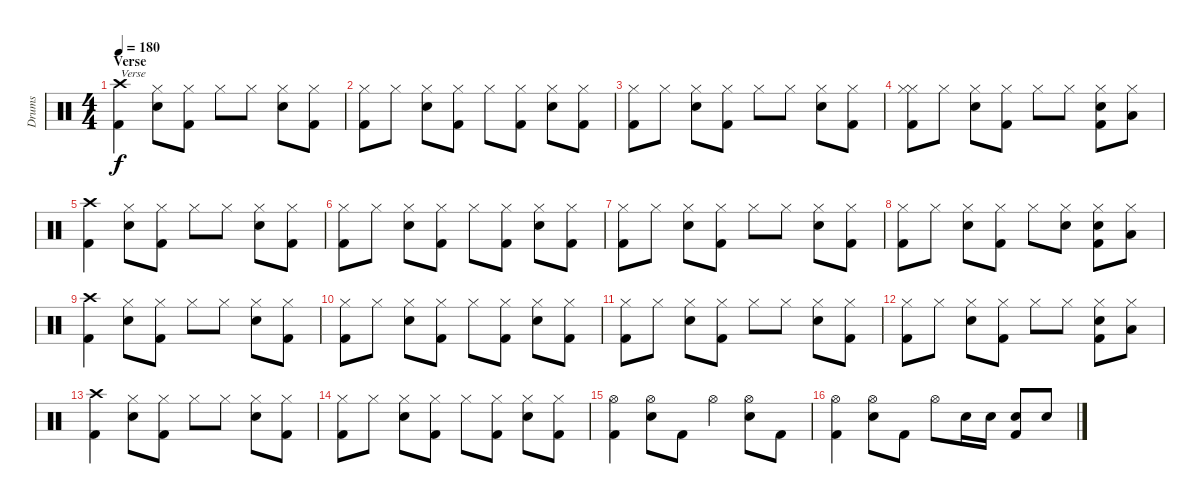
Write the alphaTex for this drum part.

\track ("Drums" "Drums") {instrument percussion}
\staff {score}
\articulation defaults
\ts (4 4)
\section ("" "Verse")
\tempo 180
\clef neutral
\ks c
("Crash high (hit)" "Kick (hit) 2").4{txt "Verse" dy f} ("Hi-Hat (closed)" "Electric Snare (hit)").8 ("Hi-Hat (closed)" "Kick (hit) 2").8 "Hi-Hat (closed)".8 "Hi-Hat (closed)".8 ("Hi-Hat (closed)" "Electric Snare (hit)").8 ("Hi-Hat (closed)" "Kick (hit) 2").8 |
("Hi-Hat (closed)" "Kick (hit) 2").8 "Hi-Hat (closed)".8 ("Hi-Hat (closed)" "Electric Snare (hit)").8 ("Hi-Hat (closed)" "Kick (hit) 2").8 "Hi-Hat (closed)".8 ("Hi-Hat (closed)" "Kick (hit) 2").8 ("Hi-Hat (closed)" "Electric Snare (hit)").8 ("Hi-Hat (closed)" "Kick (hit) 2").8 |
("Hi-Hat (closed)" "Kick (hit) 2").8 "Hi-Hat (closed)".8 ("Hi-Hat (closed)" "Electric Snare (hit)").8 ("Hi-Hat (closed)" "Kick (hit) 2").8 "Hi-Hat (closed)".8 "Hi-Hat (closed)".8 ("Hi-Hat (closed)" "Electric Snare (hit)").8 ("Hi-Hat (closed)" "Kick (hit) 2").8 |
("Hi-Hat (closed)" "Hi-Hat (closed)" "Kick (hit) 2").8 "Hi-Hat (closed)".8 ("Hi-Hat (closed)" "Electric Snare (hit)").8 ("Hi-Hat (closed)" "Kick (hit) 2").8 "Hi-Hat (closed)".8 "Hi-Hat (closed)".8 ("Hi-Hat (closed)" "Electric Snare (hit)" "Kick (hit) 2").8 ("Hi-Hat (closed)" "Low Floor Tom (hit)").8 |
("Crash high (hit)" "Kick (hit) 2").4 ("Hi-Hat (closed)" "Electric Snare (hit)").8 ("Hi-Hat (closed)" "Kick (hit) 2").8 "Hi-Hat (closed)".8 "Hi-Hat (closed)".8 ("Hi-Hat (closed)" "Electric Snare (hit)").8 ("Hi-Hat (closed)" "Kick (hit) 2").8 |
("Hi-Hat (closed)" "Kick (hit) 2").8 "Hi-Hat (closed)".8 ("Hi-Hat (closed)" "Electric Snare (hit)").8 ("Hi-Hat (closed)" "Kick (hit) 2").8 "Hi-Hat (closed)".8 ("Hi-Hat (closed)" "Kick (hit) 2").8 ("Hi-Hat (closed)" "Electric Snare (hit)").8 ("Hi-Hat (closed)" "Kick (hit) 2").8 |
("Hi-Hat (closed)" "Kick (hit) 2").8 "Hi-Hat (closed)".8 ("Hi-Hat (closed)" "Electric Snare (hit)").8 ("Hi-Hat (closed)" "Kick (hit) 2").8 "Hi-Hat (closed)".8 "Hi-Hat (closed)".8 ("Hi-Hat (closed)" "Electric Snare (hit)").8 ("Hi-Hat (closed)" "Kick (hit) 2").8 |
("Hi-Hat (closed)" "Kick (hit) 2").8 "Hi-Hat (closed)".8 ("Hi-Hat (closed)" "Electric Snare (hit)").8 ("Hi-Hat (closed)" "Kick (hit) 2").8 "Hi-Hat (closed)".8 ("Hi-Hat (closed)" "Electric Snare (hit)").8 ("Hi-Hat (closed)" "Electric Snare (hit)" "Kick (hit) 2").8 ("Hi-Hat (closed)" "Low Floor Tom (hit)").8 |
("Crash high (hit)" "Kick (hit) 2").4 ("Hi-Hat (closed)" "Electric Snare (hit)").8 ("Hi-Hat (closed)" "Kick (hit) 2").8 "Hi-Hat (closed)".8 "Hi-Hat (closed)".8 ("Hi-Hat (closed)" "Electric Snare (hit)").8 ("Hi-Hat (closed)" "Kick (hit) 2").8 |
("Hi-Hat (closed)" "Kick (hit) 2").8 "Hi-Hat (closed)".8 ("Hi-Hat (closed)" "Electric Snare (hit)").8 ("Hi-Hat (closed)" "Kick (hit) 2").8 "Hi-Hat (closed)".8 ("Hi-Hat (closed)" "Kick (hit) 2").8 ("Hi-Hat (closed)" "Electric Snare (hit)").8 ("Hi-Hat (closed)" "Kick (hit) 2").8 |
("Hi-Hat (closed)" "Kick (hit) 2").8 "Hi-Hat (closed)".8 ("Hi-Hat (closed)" "Electric Snare (hit)").8 ("Hi-Hat (closed)" "Kick (hit) 2").8 "Hi-Hat (closed)".8 "Hi-Hat (closed)".8 ("Hi-Hat (closed)" "Electric Snare (hit)").8 ("Hi-Hat (closed)" "Kick (hit) 2").8 |
("Hi-Hat (closed)" "Kick (hit) 2").8 "Hi-Hat (closed)".8 ("Hi-Hat (closed)" "Electric Snare (hit)").8 ("Hi-Hat (closed)" "Kick (hit) 2").8 "Hi-Hat (closed)".8 "Hi-Hat (closed)".8 ("Hi-Hat (closed)" "Electric Snare (hit)" "Kick (hit) 2").8 ("Hi-Hat (closed)" "Low Floor Tom (hit)").8 |
("Crash high (hit)" "Kick (hit) 2").4 ("Hi-Hat (closed)" "Electric Snare (hit)").8 ("Hi-Hat (closed)" "Kick (hit) 2").8 "Hi-Hat (closed)".8 "Hi-Hat (closed)".8 ("Hi-Hat (closed)" "Electric Snare (hit)").8 ("Hi-Hat (closed)" "Kick (hit) 2").8 |
("Hi-Hat (closed)" "Kick (hit) 2").8 "Hi-Hat (closed)".8 ("Hi-Hat (closed)" "Electric Snare (hit)").8 ("Hi-Hat (closed)" "Kick (hit) 2").8 "Hi-Hat (closed)".8 ("Hi-Hat (closed)" "Kick (hit) 2").8 ("Hi-Hat (closed)" "Electric Snare (hit)").8 ("Hi-Hat (closed)" "Kick (hit) 2").8 |
("Hi-Hat (open)" "Kick (hit) 2").4 ("Hi-Hat (open)" "Electric Snare (hit)").8 "Kick (hit) 2".8 "Hi-Hat (open)".4 ("Hi-Hat (open)" "Electric Snare (hit)").8 "Kick (hit) 2".8 |
("Hi-Hat (open)" "Kick (hit) 2").4 ("Hi-Hat (open)" "Electric Snare (hit)").8 "Kick (hit) 2".8 "Hi-Hat (open)".8 "Electric Snare (hit)".16 "Electric Snare (hit)".16 ("Electric Snare (hit)" "Kick (hit) 2").8 "Electric Snare (hit)".8
